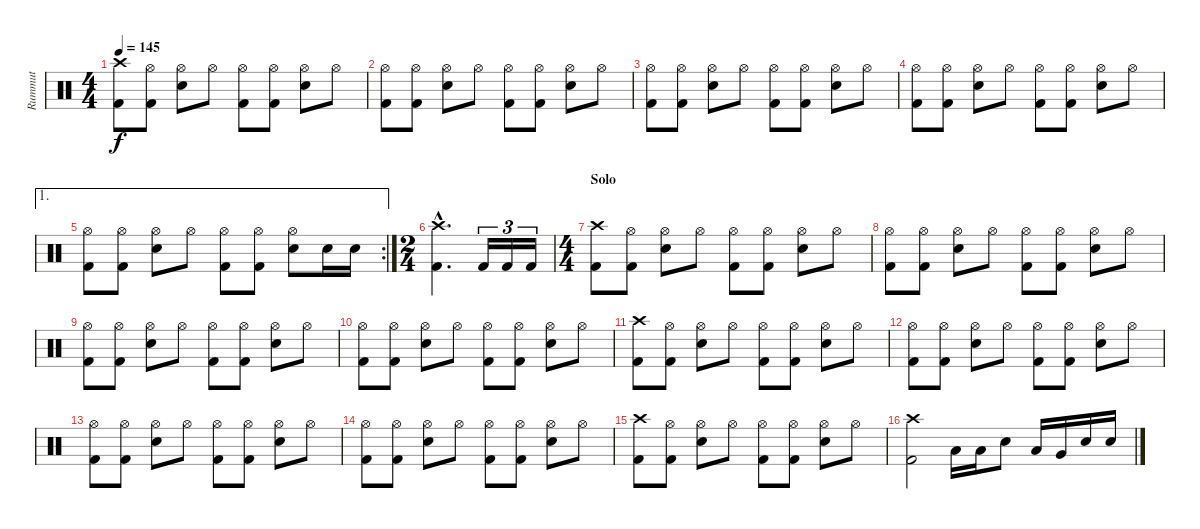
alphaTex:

\track ("Rummut" "Rummut") {instrument percussion}
\staff {score}
\articulation defaults
\ts (4 4)
\tempo 145
\clef neutral
\ks c
("Crash high (hit)" "Kick (hit) 2").8{dy f} ("Hi-Hat (open)" "Kick (hit) 2").8 ("Hi-Hat (open)" "Electric Snare (hit)").8 "Hi-Hat (open)".8 ("Hi-Hat (open)" "Kick (hit) 2").8 ("Hi-Hat (open)" "Kick (hit) 2").8 ("Hi-Hat (open)" "Electric Snare (hit)").8 "Hi-Hat (open)".8 |
("Hi-Hat (open)" "Kick (hit) 2").8 ("Hi-Hat (open)" "Kick (hit) 2").8 ("Hi-Hat (open)" "Electric Snare (hit)").8 "Hi-Hat (open)".8 ("Hi-Hat (open)" "Kick (hit) 2").8 ("Hi-Hat (open)" "Kick (hit) 2").8 ("Hi-Hat (open)" "Electric Snare (hit)").8 "Hi-Hat (open)".8 |
("Hi-Hat (open)" "Kick (hit) 2").8 ("Hi-Hat (open)" "Kick (hit) 2").8 ("Hi-Hat (open)" "Electric Snare (hit)").8 "Hi-Hat (open)".8 ("Hi-Hat (open)" "Kick (hit) 2").8 ("Hi-Hat (open)" "Kick (hit) 2").8 ("Hi-Hat (open)" "Electric Snare (hit)").8 "Hi-Hat (open)".8 |
("Hi-Hat (open)" "Kick (hit) 2").8 ("Hi-Hat (open)" "Kick (hit) 2").8 ("Hi-Hat (open)" "Electric Snare (hit)").8 "Hi-Hat (open)".8 ("Hi-Hat (open)" "Kick (hit) 2").8 ("Hi-Hat (open)" "Kick (hit) 2").8 ("Hi-Hat (open)" "Electric Snare (hit)").8 "Hi-Hat (open)".8 |
\ae 1
\rc 2
("Hi-Hat (open)" "Kick (hit) 2").8 ("Hi-Hat (open)" "Kick (hit) 2").8 ("Hi-Hat (open)" "Electric Snare (hit)").8 "Hi-Hat (open)".8 ("Hi-Hat (open)" "Kick (hit) 2").8 ("Hi-Hat (open)" "Kick (hit) 2").8 ("Hi-Hat (open)" "Electric Snare (hit)").8 "Electric Snare (hit)".16 "Electric Snare (hit)".16 |
\ts (2 4)
("Crash high (hit)"{hac} "Kick (hit) 2"{hac}).4{d} "Kick (hit) 2".16{tu (3 2)} "Kick (hit) 2".16{tu (3 2)} "Kick (hit) 2".16{tu (3 2)} |
\ts (4 4)
\section ("" "Solo")
("Crash high (hit)" "Kick (hit) 2").8 ("Hi-Hat (open)" "Kick (hit) 2").8 ("Hi-Hat (open)" "Electric Snare (hit)").8 "Hi-Hat (open)".8 ("Hi-Hat (open)" "Kick (hit) 2").8 ("Hi-Hat (open)" "Kick (hit) 2").8 ("Hi-Hat (open)" "Electric Snare (hit)").8 "Hi-Hat (open)".8 |
("Hi-Hat (open)" "Kick (hit) 2").8 ("Hi-Hat (open)" "Kick (hit) 2").8 ("Hi-Hat (open)" "Electric Snare (hit)").8 "Hi-Hat (open)".8 ("Hi-Hat (open)" "Kick (hit) 2").8 ("Hi-Hat (open)" "Kick (hit) 2").8 ("Hi-Hat (open)" "Electric Snare (hit)").8 "Hi-Hat (open)".8 |
("Hi-Hat (open)" "Kick (hit) 2").8 ("Hi-Hat (open)" "Kick (hit) 2").8 ("Hi-Hat (open)" "Electric Snare (hit)").8 "Hi-Hat (open)".8 ("Hi-Hat (open)" "Kick (hit) 2").8 ("Hi-Hat (open)" "Kick (hit) 2").8 ("Hi-Hat (open)" "Electric Snare (hit)").8 "Hi-Hat (open)".8 |
("Hi-Hat (open)" "Kick (hit) 2").8 ("Hi-Hat (open)" "Kick (hit) 2").8 ("Hi-Hat (open)" "Electric Snare (hit)").8 "Hi-Hat (open)".8 ("Hi-Hat (open)" "Kick (hit) 2").8 ("Hi-Hat (open)" "Kick (hit) 2").8 ("Hi-Hat (open)" "Electric Snare (hit)").8 "Hi-Hat (open)".8 |
("Crash high (hit)" "Kick (hit) 2").8 ("Hi-Hat (open)" "Kick (hit) 2").8 ("Hi-Hat (open)" "Electric Snare (hit)").8 "Hi-Hat (open)".8 ("Hi-Hat (open)" "Kick (hit) 2").8 ("Hi-Hat (open)" "Kick (hit) 2").8 ("Hi-Hat (open)" "Electric Snare (hit)").8 "Hi-Hat (open)".8 |
("Hi-Hat (open)" "Kick (hit) 2").8 ("Hi-Hat (open)" "Kick (hit) 2").8 ("Hi-Hat (open)" "Electric Snare (hit)").8 "Hi-Hat (open)".8 ("Hi-Hat (open)" "Kick (hit) 2").8 ("Hi-Hat (open)" "Kick (hit) 2").8 ("Hi-Hat (open)" "Electric Snare (hit)").8 "Hi-Hat (open)".8 |
("Hi-Hat (open)" "Kick (hit) 2").8 ("Hi-Hat (open)" "Kick (hit) 2").8 ("Hi-Hat (open)" "Electric Snare (hit)").8 "Hi-Hat (open)".8 ("Hi-Hat (open)" "Kick (hit) 2").8 ("Hi-Hat (open)" "Kick (hit) 2").8 ("Hi-Hat (open)" "Electric Snare (hit)").8 "Hi-Hat (open)".8 |
("Hi-Hat (open)" "Kick (hit) 2").8 ("Hi-Hat (open)" "Kick (hit) 2").8 ("Hi-Hat (open)" "Electric Snare (hit)").8 "Hi-Hat (open)".8 ("Hi-Hat (open)" "Kick (hit) 2").8 ("Hi-Hat (open)" "Kick (hit) 2").8 ("Hi-Hat (open)" "Electric Snare (hit)").8 "Hi-Hat (open)".8 |
("Crash high (hit)" "Kick (hit) 2").8 ("Hi-Hat (open)" "Kick (hit) 2").8 ("Hi-Hat (open)" "Electric Snare (hit)").8 "Hi-Hat (open)".8 ("Hi-Hat (open)" "Kick (hit) 2").8 ("Hi-Hat (open)" "Kick (hit) 2").8 ("Hi-Hat (open)" "Electric Snare (hit)").8 "Hi-Hat (open)".8 |
("Crash high (hit)" "Kick (hit) 2").2 "Low Floor Tom (hit)".16 "Low Floor Tom (hit)".16 "Electric Snare (hit)".8 "Low Floor Tom (hit)".16 "Very Low Tom (hit)".16 "Electric Snare (hit)".16 "Electric Snare (hit)".16
